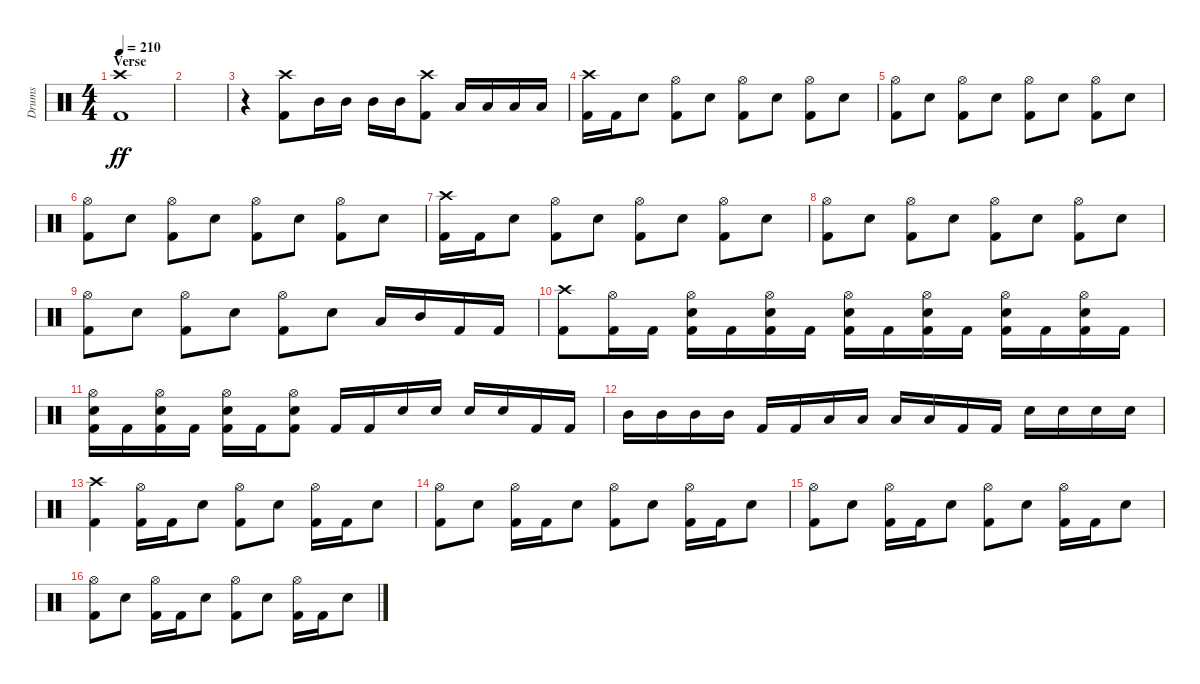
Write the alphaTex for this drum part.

\track ("Drums" "Drums") {instrument percussion}
\staff {score}
\articulation defaults
\ts (4 4)
\section ("" "Verse")
\tempo 210
\clef neutral
\ks c
("Crash high (hit)" "Kick (hit) 2").1{dy ff} |
|
r.4 ("Crash high (hit)" "Kick (hit) 2").8 "Mid Tom (hit)".16 "Mid Tom (hit)".16 "Mid Tom (hit)".16 "Mid Tom (hit)".16 ("Crash high (hit)" "Kick (hit) 2").8 "Low Tom (hit)".16 "Low Tom (hit)".16 "Low Tom (hit)".16 "Low Tom (hit)".16 |
("Crash high (hit)" "Kick (hit) 2").16 "Kick (hit) 2".16 "Snare (hit) 2".8 ("Hi-Hat (open)" "Kick (hit) 2").8 "Snare (hit) 2".8 ("Hi-Hat (open)" "Kick (hit) 2").8 "Snare (hit) 2".8 ("Hi-Hat (open)" "Kick (hit) 2").8 "Snare (hit) 2".8 |
("Hi-Hat (open)" "Kick (hit) 2").8 "Snare (hit) 2".8 ("Hi-Hat (open)" "Kick (hit) 2").8 "Snare (hit) 2".8 ("Hi-Hat (open)" "Kick (hit) 2").8 "Snare (hit) 2".8 ("Hi-Hat (open)" "Kick (hit) 2").8 "Snare (hit) 2".8 |
("Hi-Hat (open)" "Kick (hit) 2").8 "Snare (hit) 2".8 ("Hi-Hat (open)" "Kick (hit) 2").8 "Snare (hit) 2".8 ("Hi-Hat (open)" "Kick (hit) 2").8 "Snare (hit) 2".8 ("Hi-Hat (open)" "Kick (hit) 2").8 "Snare (hit) 2".8 |
("Crash high (hit)" "Kick (hit) 2").16 "Kick (hit) 2".16 "Snare (hit) 2".8 ("Hi-Hat (open)" "Kick (hit) 2").8 "Snare (hit) 2".8 ("Hi-Hat (open)" "Kick (hit) 2").8 "Snare (hit) 2".8 ("Hi-Hat (open)" "Kick (hit) 2").8 "Snare (hit) 2".8 |
("Hi-Hat (open)" "Kick (hit) 2").8 "Snare (hit) 2".8 ("Hi-Hat (open)" "Kick (hit) 2").8 "Snare (hit) 2".8 ("Hi-Hat (open)" "Kick (hit) 2").8 "Snare (hit) 2".8 ("Hi-Hat (open)" "Kick (hit) 2").8 "Snare (hit) 2".8 |
("Hi-Hat (open)" "Kick (hit) 2").8 "Snare (hit) 2".8 ("Hi-Hat (open)" "Kick (hit) 2").8 "Snare (hit) 2".8 ("Hi-Hat (open)" "Kick (hit) 2").8 "Snare (hit) 2".8 "Low Tom (hit)".16 "Mid Tom (hit)".16 "Kick (hit) 2".16 "Kick (hit) 2".16 |
("Crash high (hit)" "Kick (hit) 2").8 ("Hi-Hat (open)" "Kick (hit) 2").16 "Kick (hit) 2".16 ("Hi-Hat (open)" "Snare (hit) 2" "Kick (hit) 2").16 "Kick (hit) 2".16 ("Hi-Hat (open)" "Snare (hit) 2" "Kick (hit) 2").16 "Kick (hit) 2".16 ("Hi-Hat (open)" "Snare (hit) 2" "Kick (hit) 2").16 "Kick (hit) 2".16 ("Hi-Hat (open)" "Snare (hit) 2" "Kick (hit) 2").16 "Kick (hit) 2".16 ("Hi-Hat (open)" "Snare (hit) 2" "Kick (hit) 2").16 "Kick (hit) 2".16 ("Hi-Hat (open)" "Snare (hit) 2" "Kick (hit) 2").16 "Kick (hit) 2".16 |
("Hi-Hat (open)" "Snare (hit) 2" "Kick (hit) 2").16 "Kick (hit) 2".16 ("Hi-Hat (open)" "Snare (hit) 2" "Kick (hit) 2").16 "Kick (hit) 2".16 ("Hi-Hat (open)" "Snare (hit) 2" "Kick (hit) 2").16 "Kick (hit) 2".16 ("Hi-Hat (open)" "Snare (hit) 2" "Kick (hit) 2").8 "Kick (hit) 2".16 "Kick (hit) 2".16 "Snare (hit) 2".16 "Snare (hit) 2".16 "Snare (hit) 2".16 "Snare (hit) 2".16 "Kick (hit) 2".16 "Kick (hit) 2".16 |
"Mid Tom (hit)".16 "Mid Tom (hit)".16 "Mid Tom (hit)".16 "Mid Tom (hit)".16 "Kick (hit) 2".16 "Kick (hit) 2".16 "Low Tom (hit)".16 "Low Tom (hit)".16 "Low Tom (hit)".16 "Low Tom (hit)".16 "Kick (hit) 2".16 "Kick (hit) 2".16 "Snare (hit) 2".16 "Snare (hit) 2".16 "Snare (hit) 2".16 "Snare (hit) 2".16 |
("Crash high (hit)" "Kick (hit) 2").4 ("Hi-Hat (open)" "Kick (hit) 2").16 "Kick (hit) 2".16 "Snare (hit) 2".8 ("Hi-Hat (open)" "Kick (hit) 2").8 "Snare (hit) 2".8 ("Hi-Hat (open)" "Kick (hit) 2").16 "Kick (hit) 2".16 "Snare (hit) 2".8 |
("Hi-Hat (open)" "Kick (hit) 2").8 "Snare (hit) 2".8 ("Hi-Hat (open)" "Kick (hit) 2").16 "Kick (hit) 2".16 "Snare (hit) 2".8 ("Hi-Hat (open)" "Kick (hit) 2").8 "Snare (hit) 2".8 ("Hi-Hat (open)" "Kick (hit) 2").16 "Kick (hit) 2".16 "Snare (hit) 2".8 |
("Hi-Hat (open)" "Kick (hit) 2").8 "Snare (hit) 2".8 ("Hi-Hat (open)" "Kick (hit) 2").16 "Kick (hit) 2".16 "Snare (hit) 2".8 ("Hi-Hat (open)" "Kick (hit) 2").8 "Snare (hit) 2".8 ("Hi-Hat (open)" "Kick (hit) 2").16 "Kick (hit) 2".16 "Snare (hit) 2".8 |
("Hi-Hat (open)" "Kick (hit) 2").8 "Snare (hit) 2".8 ("Hi-Hat (open)" "Kick (hit) 2").16 "Kick (hit) 2".16 "Snare (hit) 2".8 ("Hi-Hat (open)" "Kick (hit) 2").8 "Snare (hit) 2".8 ("Hi-Hat (open)" "Kick (hit) 2").16 "Kick (hit) 2".16 "Snare (hit) 2".8
